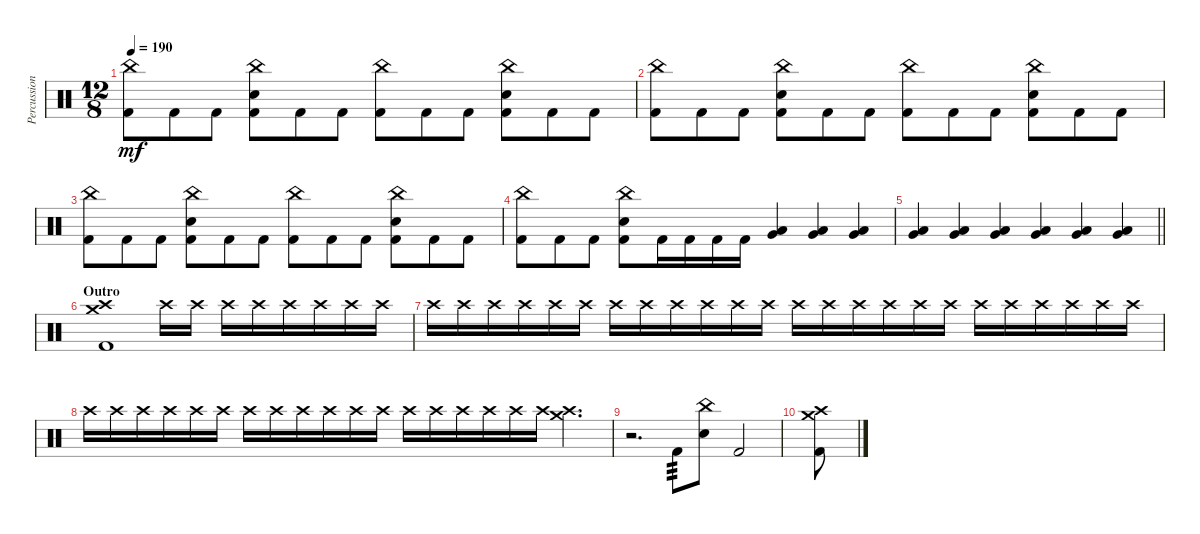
\track ("Percussion" "Percussion") {instrument percussion}
\staff {score}
\articulation defaults
\ts (12 8)
\tempo 190
\clef neutral
\ks c
("China (hit)" "Kick (hit) 2").8{dy mf} "Kick (hit) 2".8 "Kick (hit) 2".8 ("Electric Snare (hit)" "China (hit)" "Kick (hit) 2").8 "Kick (hit) 2".8 "Kick (hit) 2".8 ("China (hit)" "Kick (hit) 2").8 "Kick (hit) 2".8 "Kick (hit) 2".8 ("Electric Snare (hit)" "China (hit)" "Kick (hit) 2").8 "Kick (hit) 2".8 "Kick (hit) 2".8 |
("China (hit)" "Kick (hit) 2").8 "Kick (hit) 2".8 "Kick (hit) 2".8 ("Electric Snare (hit)" "China (hit)" "Kick (hit) 2").8 "Kick (hit) 2".8 "Kick (hit) 2".8 ("China (hit)" "Kick (hit) 2").8 "Kick (hit) 2".8 "Kick (hit) 2".8 ("Electric Snare (hit)" "China (hit)" "Kick (hit) 2").8 "Kick (hit) 2".8 "Kick (hit) 2".8 |
("China (hit)" "Kick (hit) 2").8 "Kick (hit) 2".8 "Kick (hit) 2".8 ("Electric Snare (hit)" "China (hit)" "Kick (hit) 2").8 "Kick (hit) 2".8 "Kick (hit) 2".8 ("China (hit)" "Kick (hit) 2").8 "Kick (hit) 2".8 "Kick (hit) 2".8 ("Electric Snare (hit)" "China (hit)" "Kick (hit) 2").8 "Kick (hit) 2".8 "Kick (hit) 2".8 |
("China (hit)" "Kick (hit) 2").8 "Kick (hit) 2".8 "Kick (hit) 2".8 ("Electric Snare (hit)" "China (hit)" "Kick (hit) 2").8 "Kick (hit) 2".16 "Kick (hit) 2".16 "Kick (hit) 2".16 "Kick (hit) 2".16 ("Low Tom (hit)" "Very Low Tom (hit)").4 ("Very Low Tom (hit)" "Low Floor Tom (hit)").4 ("Low Tom (hit)" "Very Low Tom (hit)").4 |
\barLineRight lightlight
("Low Tom (hit)" "Very Low Tom (hit)").4 ("Very Low Tom (hit)" "Low Floor Tom (hit)").4 ("Low Tom (hit)" "Very Low Tom (hit)").4 ("Low Tom (hit)" "Very Low Tom (hit)").4 ("Very Low Tom (hit)" "Low Floor Tom (hit)").4 ("Low Tom (hit)" "Very Low Tom (hit)").4 |
\section ("" "Outro")
("Crash medium (hit)" "Crash high (hit)" "Kick (hit) 2").1 "Crash high (hit)".16{volume 0} "Crash high (hit)".16{volume 14} "Crash high (hit)".16 "Crash high (hit)".16 "Crash high (hit)".16 "Crash high (hit)".16 "Crash high (hit)".16 "Crash high (hit)".16 |
"Crash high (hit)".16 "Crash high (hit)".16 "Crash high (hit)".16 "Crash high (hit)".16 "Crash high (hit)".16 "Crash high (hit)".16 "Crash high (hit)".16 "Crash high (hit)".16 "Crash high (hit)".16 "Crash high (hit)".16 "Crash high (hit)".16 "Crash high (hit)".16 "Crash high (hit)".16 "Crash high (hit)".16 "Crash high (hit)".16 "Crash high (hit)".16 "Crash high (hit)".16 "Crash high (hit)".16 "Crash high (hit)".16 "Crash high (hit)".16 "Crash high (hit)".16 "Crash high (hit)".16 "Crash high (hit)".16 "Crash high (hit)".16 |
"Crash high (hit)".16 "Crash high (hit)".16 "Crash high (hit)".16 "Crash high (hit)".16 "Crash high (hit)".16 "Crash high (hit)".16 "Crash high (hit)".16 "Crash high (hit)".16 "Crash high (hit)".16 "Crash high (hit)".16 "Crash high (hit)".16 "Crash high (hit)".16 "Crash high (hit)".16 "Crash high (hit)".16 "Crash high (hit)".16 "Crash high (hit)".16 "Crash high (hit)".16 "Crash high (hit)".16 ("Crash medium (hit)" "Crash high (hit)").4{d} |
r.2{d} "Kick (hit) 2".8{tp 3} ("Electric Snare (hit)" "China (hit)").8 "Kick (hit) 2".2 |
("Crash high (hit)" "Crash medium (hit)" "Kick (hit) 2").8
